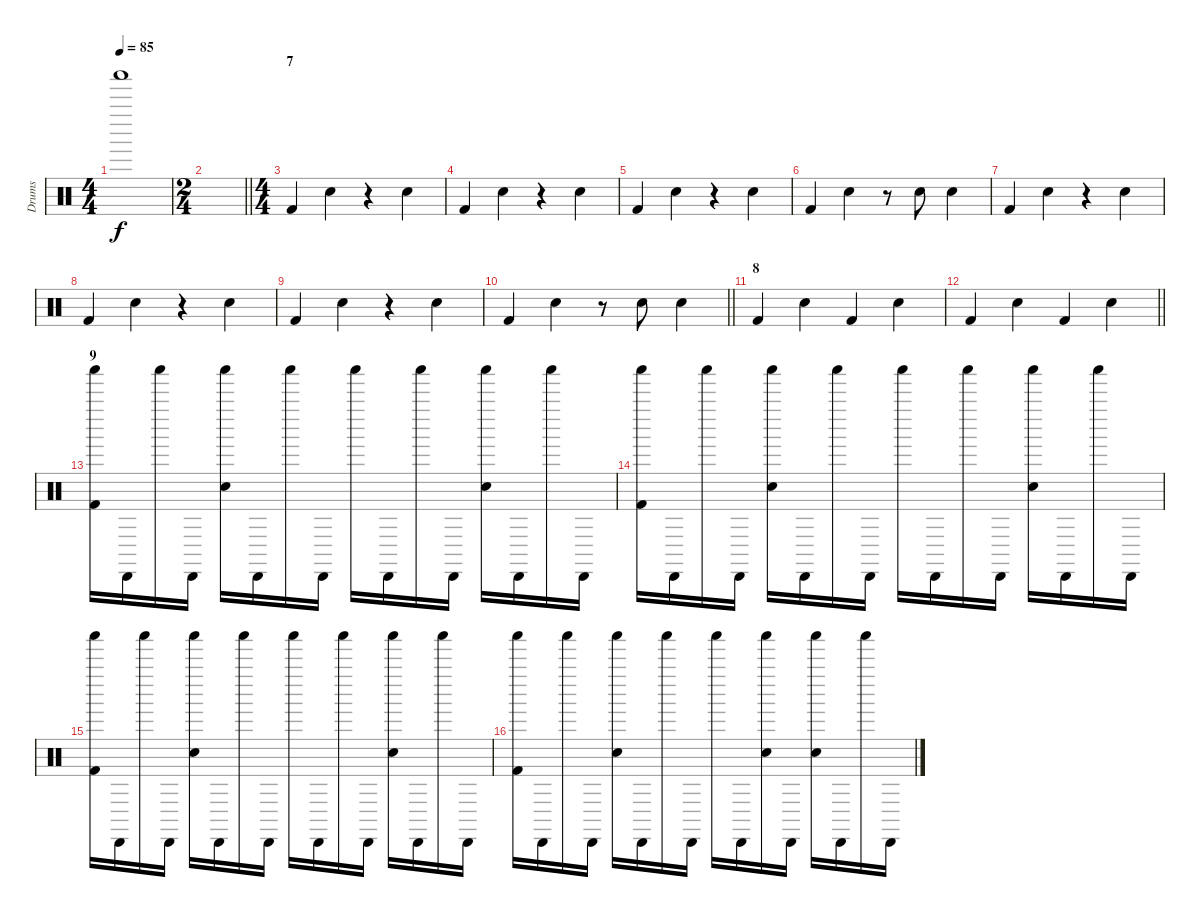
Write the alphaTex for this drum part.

\track ("Drums" "Drums") {instrument percussion}
\staff {score}
\articulation defaults
\ts (4 4)
\tempo 85
\clef neutral
\ks c "Shaker (hit)".1{dy f}
|
\ts (2 4)
\barLineRight lightlight
|
\ts (4 4)
\section ("" "7")
"Kick (hit) 2".4 "Electric Snare (hit)".4 r.4 "Electric Snare (hit)".4 |
"Kick (hit) 2".4 "Electric Snare (hit)".4 r.4 "Electric Snare (hit)".4 |
"Kick (hit) 2".4 "Electric Snare (hit)".4 r.4 "Electric Snare (hit)".4 |
"Kick (hit) 2".4 "Electric Snare (hit)".4 r.8 "Electric Snare (hit)".8 "Electric Snare (hit)".4 |
"Kick (hit) 2".4 "Electric Snare (hit)".4 r.4 "Electric Snare (hit)".4 |
"Kick (hit) 2".4 "Electric Snare (hit)".4 r.4 "Electric Snare (hit)".4 |
"Kick (hit) 2".4 "Electric Snare (hit)".4 r.4 "Electric Snare (hit)".4 |
\barLineRight lightlight "Kick (hit) 2".4 "Electric Snare (hit)".4
r.8 "Electric Snare (hit)".8 "Electric Snare (hit)".4 |
\section ("" "8")
"Kick (hit) 2".4 "Electric Snare (hit)".4 "Kick (hit) 2".4 "Electric Snare (hit)".4 |
\barLineRight lightlight "Kick (hit) 2".4 "Electric Snare (hit)".4 "Kick (hit) 2".4 "Electric Snare (hit)".4
|
\section ("" "9")
("Shaker (hit)" "Kick (hit) 2").16 "Cabasa (hit)".16 "Shaker (hit)".16 "Cabasa (hit)".16 ("Shaker (hit)" "Electric Snare (hit)").16 "Cabasa (hit)".16 "Shaker (hit)".16 "Cabasa (hit)".16 "Shaker (hit)".16 "Cabasa (hit)".16 "Shaker (hit)".16 "Cabasa (hit)".16 ("Shaker (hit)" "Electric Snare (hit)").16 "Cabasa (hit)".16 "Shaker (hit)".16 "Cabasa (hit)".16 |
("Shaker (hit)" "Kick (hit) 2").16 "Cabasa (hit)".16 "Shaker (hit)".16 "Cabasa (hit)".16 ("Shaker (hit)" "Electric Snare (hit)").16 "Cabasa (hit)".16 "Shaker (hit)".16 "Cabasa (hit)".16 "Shaker (hit)".16 "Cabasa (hit)".16 "Shaker (hit)".16 "Cabasa (hit)".16 ("Shaker (hit)" "Electric Snare (hit)").16 "Cabasa (hit)".16 "Shaker (hit)".16 "Cabasa (hit)".16 |
("Shaker (hit)" "Kick (hit) 2").16 "Cabasa (hit)".16 "Shaker (hit)".16 "Cabasa (hit)".16 ("Shaker (hit)" "Electric Snare (hit)").16 "Cabasa (hit)".16 "Shaker (hit)".16 "Cabasa (hit)".16 "Shaker (hit)".16 "Cabasa (hit)".16 "Shaker (hit)".16 "Cabasa (hit)".16 ("Shaker (hit)" "Electric Snare (hit)").16 "Cabasa (hit)".16 "Shaker (hit)".16 "Cabasa (hit)".16 |
("Shaker (hit)" "Kick (hit) 2").16 "Cabasa (hit)".16 "Shaker (hit)".16 "Cabasa (hit)".16 ("Shaker (hit)" "Electric Snare (hit)").16 "Cabasa (hit)".16 "Shaker (hit)".16 "Cabasa (hit)".16 "Shaker (hit)".16 "Cabasa (hit)".16 ("Shaker (hit)" "Electric Snare (hit)").16 "Cabasa (hit)".16 ("Shaker (hit)" "Electric Snare (hit)").16 "Cabasa (hit)".16 "Shaker (hit)".16 "Cabasa (hit)".16
